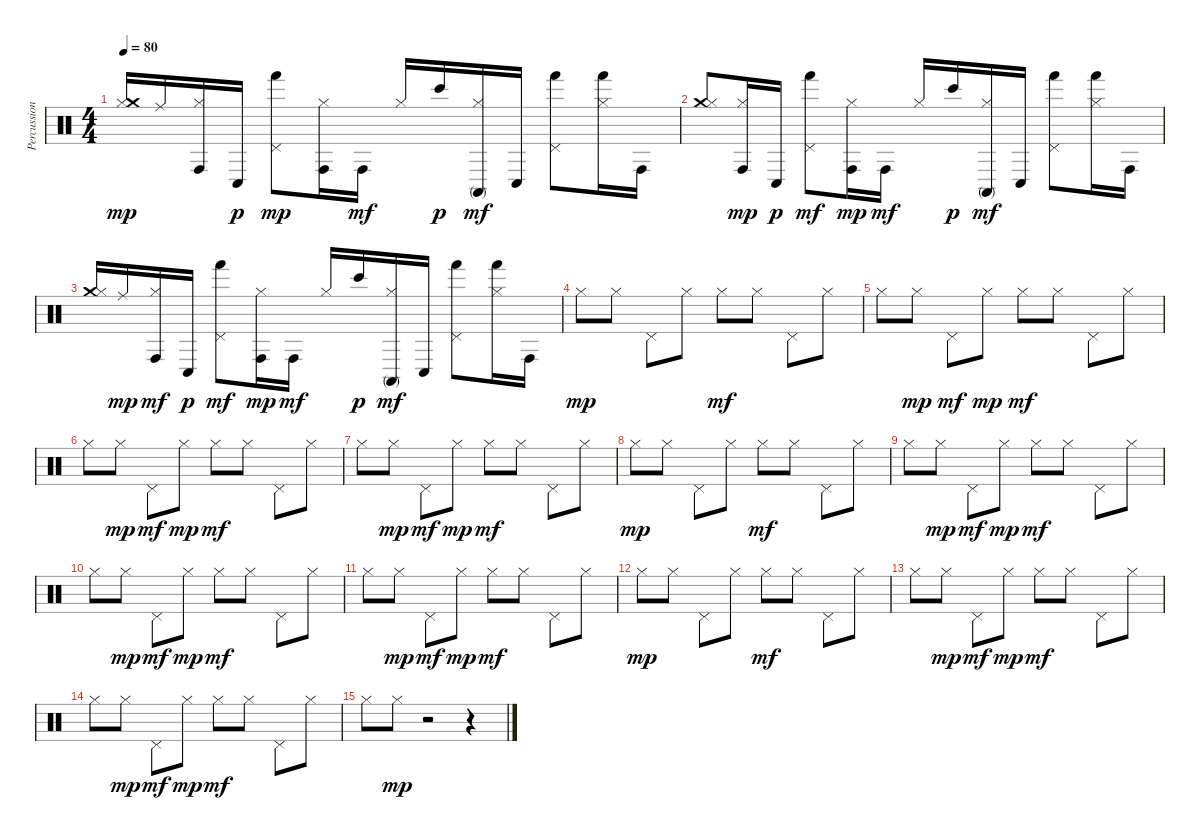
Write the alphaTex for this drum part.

\track ("Percussion" "Percussion") {instrument percussion}
\staff {score}
\articulation defaults
\ts (4 4)
\tempo 80
\clef neutral
\ks c
("Hi-Hat (closed)" "Crash medium (hit)").16{dy mp} "Ride (middle)".16 ("Conga high (hit)" "Hi-Hat (closed)").16 "Conga low (hit)".16{dy p} ("Pedal Hi-Hat (hit)" "Hand (hit)").8{dy mp} ("Conga high (hit)" "Hi-Hat (closed)").16 "Conga high (hit)".16{dy mf} "Hi-Hat (closed)".16 "Bongo High (hit)".16{dy p} ("Conga high (mute)" "Hi-Hat (closed)").16{dy mf} "Conga low (hit)".16 ("Pedal Hi-Hat (hit)" "Hand (hit)").8 ("Hi-Hat (closed)" "Hand (hit)").16 "Conga high (hit)".16 |
("Crash medium (hit)" "Hi-Hat (closed)").8 ("Conga high (hit)" "Hi-Hat (closed)").16{dy mp} "Conga low (hit)".16{dy p} ("Hand (hit)" "Pedal Hi-Hat (hit)").8{dy mf} ("Conga high (hit)" "Hi-Hat (closed)").16{dy mp} "Conga high (hit)".16{dy mf} "Hi-Hat (closed)".16 "Bongo High (hit)".16{dy p} ("Conga high (mute)" "Hi-Hat (closed)").16{dy mf} "Conga low (hit)".16 ("Pedal Hi-Hat (hit)" "Hand (hit)").8 ("Hi-Hat (closed)" "Hand (hit)").16 "Conga high (hit)".16 |
("Crash medium (hit)" "Hi-Hat (closed)").16 "Ride (middle)".16{dy mp} ("Hi-Hat (closed)" "Conga high (hit)").16{dy mf} "Conga low (hit)".16{dy p} ("Hand (hit)" "Pedal Hi-Hat (hit)").8{dy mf} ("Conga high (hit)" "Hi-Hat (closed)").16{dy mp} "Conga high (hit)".16{dy mf} "Hi-Hat (closed)".16 "Bongo High (hit)".16{dy p} ("Hi-Hat (closed)" "Conga high (mute)").16{dy mf} "Conga low (hit)".16 ("Hand (hit)" "Pedal Hi-Hat (hit)").8 ("Hi-Hat (closed)" "Hand (hit)").16 "Conga high (hit)".16 |
"Hi-Hat (closed)".8{dy mp} "Hi-Hat (closed)".8 "Pedal Hi-Hat (hit)".8 "Hi-Hat (closed)".8 "Hi-Hat (closed)".8{dy mf} "Hi-Hat (closed)".8 "Pedal Hi-Hat (hit)".8 "Hi-Hat (closed)".8 |
"Hi-Hat (closed)".8 "Hi-Hat (closed)".8{dy mp} "Pedal Hi-Hat (hit)".8{dy mf} "Hi-Hat (closed)".8{dy mp} "Hi-Hat (closed)".8{dy mf} "Hi-Hat (closed)".8 "Pedal Hi-Hat (hit)".8 "Hi-Hat (closed)".8 |
"Hi-Hat (closed)".8 "Hi-Hat (closed)".8{dy mp} "Pedal Hi-Hat (hit)".8{dy mf} "Hi-Hat (closed)".8{dy mp} "Hi-Hat (closed)".8{dy mf} "Hi-Hat (closed)".8 "Pedal Hi-Hat (hit)".8 "Hi-Hat (closed)".8 |
"Hi-Hat (closed)".8 "Hi-Hat (closed)".8{dy mp} "Pedal Hi-Hat (hit)".8{dy mf} "Hi-Hat (closed)".8{dy mp} "Hi-Hat (closed)".8{dy mf} "Hi-Hat (closed)".8 "Pedal Hi-Hat (hit)".8 "Hi-Hat (closed)".8 |
"Hi-Hat (closed)".8{dy mp} "Hi-Hat (closed)".8 "Pedal Hi-Hat (hit)".8 "Hi-Hat (closed)".8 "Hi-Hat (closed)".8{dy mf} "Hi-Hat (closed)".8 "Pedal Hi-Hat (hit)".8 "Hi-Hat (closed)".8 |
"Hi-Hat (closed)".8 "Hi-Hat (closed)".8{dy mp} "Pedal Hi-Hat (hit)".8{dy mf} "Hi-Hat (closed)".8{dy mp} "Hi-Hat (closed)".8{dy mf} "Hi-Hat (closed)".8 "Pedal Hi-Hat (hit)".8 "Hi-Hat (closed)".8 |
"Hi-Hat (closed)".8 "Hi-Hat (closed)".8{dy mp} "Pedal Hi-Hat (hit)".8{dy mf} "Hi-Hat (closed)".8{dy mp} "Hi-Hat (closed)".8{dy mf} "Hi-Hat (closed)".8 "Pedal Hi-Hat (hit)".8 "Hi-Hat (closed)".8 |
"Hi-Hat (closed)".8 "Hi-Hat (closed)".8{dy mp} "Pedal Hi-Hat (hit)".8{dy mf} "Hi-Hat (closed)".8{dy mp} "Hi-Hat (closed)".8{dy mf} "Hi-Hat (closed)".8 "Pedal Hi-Hat (hit)".8 "Hi-Hat (closed)".8 |
"Hi-Hat (closed)".8{dy mp} "Hi-Hat (closed)".8 "Pedal Hi-Hat (hit)".8 "Hi-Hat (closed)".8 "Hi-Hat (closed)".8{dy mf} "Hi-Hat (closed)".8 "Pedal Hi-Hat (hit)".8 "Hi-Hat (closed)".8 |
"Hi-Hat (closed)".8 "Hi-Hat (closed)".8{dy mp} "Pedal Hi-Hat (hit)".8{dy mf} "Hi-Hat (closed)".8{dy mp volume 12} "Hi-Hat (closed)".8{dy mf volume 11} "Hi-Hat (closed)".8{volume 11} "Pedal Hi-Hat (hit)".8{volume 10} "Hi-Hat (closed)".8{volume 10} |
"Hi-Hat (closed)".8{volume 9} "Hi-Hat (closed)".8{dy mp volume 8} "Pedal Hi-Hat (hit)".8{dy mf volume 8} "Hi-Hat (closed)".8{dy mp volume 7} "Hi-Hat (closed)".8{dy mf volume 6} "Hi-Hat (closed)".8{volume 6} "Pedal Hi-Hat (hit)".8{volume 5} "Hi-Hat (closed)".8{volume 4} |
"Hi-Hat (closed)".8{volume 4} "Hi-Hat (closed)".8{dy mp volume 3} r.2 r.4
